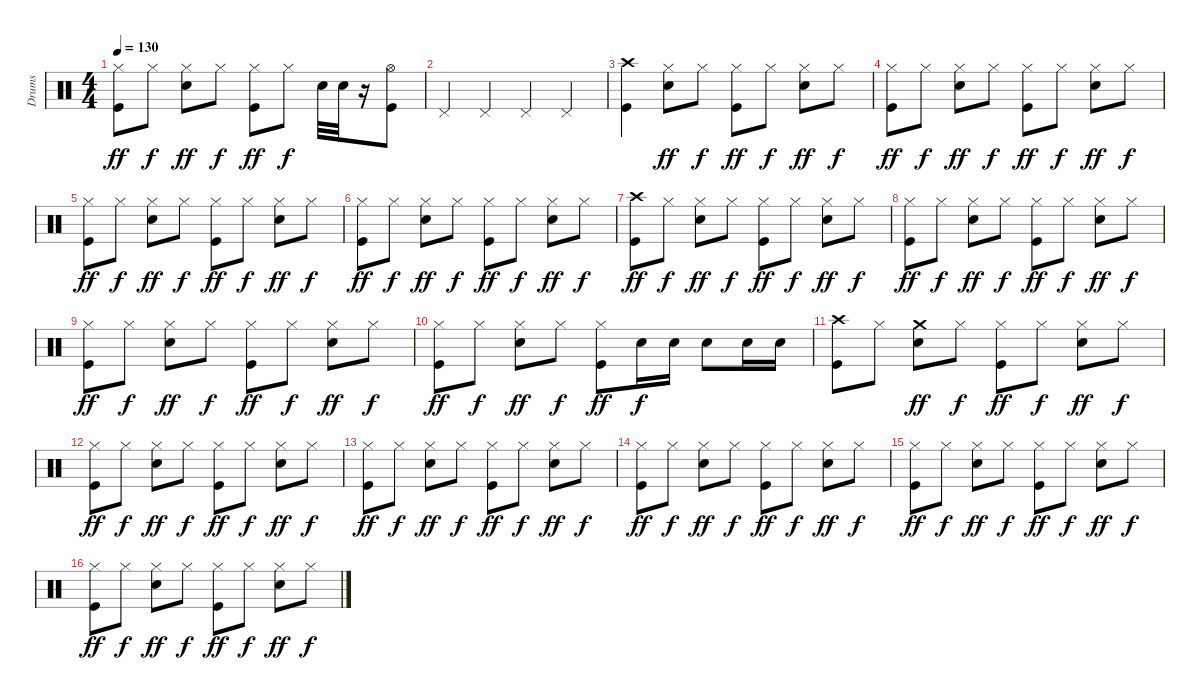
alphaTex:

\track ("Drums" "Drums") {instrument percussion}
\staff {score}
\articulation defaults
\ts (4 4)
\tempo 130
\clef neutral
\ks c
("Hi-Hat (closed)" "Kick (hit)").8{dy ff} "Hi-Hat (closed)".8{dy f} ("Hi-Hat (closed)" "Snare (hit) 2").8{dy ff} "Hi-Hat (closed)".8{dy f} ("Hi-Hat (closed)" "Kick (hit)").8{dy ff} "Hi-Hat (closed)".8{dy f} "Snare (hit) 2".32 "Snare (hit) 2".32 r.16 ("Hi-Hat (open)" "Kick (hit)").8 |
"Pedal Hi-Hat (hit)".4 "Pedal Hi-Hat (hit)".4 "Pedal Hi-Hat (hit)".4 "Pedal Hi-Hat (hit)".4 |
("Crash high (hit)" "Kick (hit)").4 ("Hi-Hat (closed)" "Snare (hit) 2").8{dy ff} "Hi-Hat (closed)".8{dy f} ("Hi-Hat (closed)" "Kick (hit)").8{dy ff} "Hi-Hat (closed)".8{dy f} ("Hi-Hat (closed)" "Snare (hit) 2").8{dy ff} "Hi-Hat (closed)".8{dy f} |
("Hi-Hat (closed)" "Kick (hit)").8{dy ff} "Hi-Hat (closed)".8{dy f} ("Hi-Hat (closed)" "Snare (hit) 2").8{dy ff} "Hi-Hat (closed)".8{dy f} ("Hi-Hat (closed)" "Kick (hit)").8{dy ff} "Hi-Hat (closed)".8{dy f} ("Hi-Hat (closed)" "Snare (hit) 2").8{dy ff} "Hi-Hat (closed)".8{dy f} |
("Hi-Hat (closed)" "Kick (hit)").8{dy ff} "Hi-Hat (closed)".8{dy f} ("Hi-Hat (closed)" "Snare (hit) 2").8{dy ff} "Hi-Hat (closed)".8{dy f} ("Hi-Hat (closed)" "Kick (hit)").8{dy ff} "Hi-Hat (closed)".8{dy f} ("Hi-Hat (closed)" "Snare (hit) 2").8{dy ff} "Hi-Hat (closed)".8{dy f} |
("Hi-Hat (closed)" "Kick (hit)").8{dy ff} "Hi-Hat (closed)".8{dy f} ("Hi-Hat (closed)" "Snare (hit) 2").8{dy ff} "Hi-Hat (closed)".8{dy f} ("Hi-Hat (closed)" "Kick (hit)").8{dy ff} "Hi-Hat (closed)".8{dy f} ("Hi-Hat (closed)" "Snare (hit) 2").8{dy ff} "Hi-Hat (closed)".8{dy f} |
("Crash high (hit)" "Kick (hit)").8{dy ff} "Hi-Hat (closed)".8{dy f} ("Hi-Hat (closed)" "Snare (hit) 2").8{dy ff} "Hi-Hat (closed)".8{dy f} ("Hi-Hat (closed)" "Kick (hit)").8{dy ff} "Hi-Hat (closed)".8{dy f} ("Hi-Hat (closed)" "Snare (hit) 2").8{dy ff} "Hi-Hat (closed)".8{dy f} |
("Hi-Hat (closed)" "Kick (hit)").8{dy ff} "Hi-Hat (closed)".8{dy f} ("Hi-Hat (closed)" "Snare (hit) 2").8{dy ff} "Hi-Hat (closed)".8{dy f} ("Hi-Hat (closed)" "Kick (hit)").8{dy ff} "Hi-Hat (closed)".8{dy f} ("Hi-Hat (closed)" "Snare (hit) 2").8{dy ff} "Hi-Hat (closed)".8{dy f} |
("Hi-Hat (closed)" "Kick (hit)").8{dy ff} "Hi-Hat (closed)".8{dy f} ("Hi-Hat (closed)" "Snare (hit) 2").8{dy ff} "Hi-Hat (closed)".8{dy f} ("Hi-Hat (closed)" "Kick (hit)").8{dy ff} "Hi-Hat (closed)".8{dy f} ("Hi-Hat (closed)" "Snare (hit) 2").8{dy ff} "Hi-Hat (closed)".8{dy f} |
("Hi-Hat (closed)" "Kick (hit)").8{dy ff} "Hi-Hat (closed)".8{dy f} ("Hi-Hat (closed)" "Snare (hit) 2").8{dy ff} "Hi-Hat (closed)".8{dy f} ("Hi-Hat (closed)" "Kick (hit)").8{dy ff} "Snare (hit) 2".16{dy f} "Snare (hit) 2".16 "Snare (hit) 2".8 "Snare (hit) 2".16 "Snare (hit) 2".16 |
("Crash high (hit)" "Kick (hit)").8 "Hi-Hat (closed)".8 ("Crash medium (hit)" "Snare (hit) 2").8{dy ff} "Hi-Hat (closed)".8{dy f} ("Hi-Hat (closed)" "Kick (hit)").8{dy ff} "Hi-Hat (closed)".8{dy f} ("Hi-Hat (closed)" "Snare (hit) 2").8{dy ff} "Hi-Hat (closed)".8{dy f} |
("Hi-Hat (closed)" "Kick (hit)").8{dy ff} "Hi-Hat (closed)".8{dy f} ("Hi-Hat (closed)" "Snare (hit) 2").8{dy ff} "Hi-Hat (closed)".8{dy f} ("Hi-Hat (closed)" "Kick (hit)").8{dy ff} "Hi-Hat (closed)".8{dy f} ("Hi-Hat (closed)" "Snare (hit) 2").8{dy ff} "Hi-Hat (closed)".8{dy f} |
("Hi-Hat (closed)" "Kick (hit)").8{dy ff} "Hi-Hat (closed)".8{dy f} ("Hi-Hat (closed)" "Snare (hit) 2").8{dy ff} "Hi-Hat (closed)".8{dy f} ("Hi-Hat (closed)" "Kick (hit)").8{dy ff} "Hi-Hat (closed)".8{dy f} ("Hi-Hat (closed)" "Snare (hit) 2").8{dy ff} "Hi-Hat (closed)".8{dy f} |
("Hi-Hat (closed)" "Kick (hit)").8{dy ff} "Hi-Hat (closed)".8{dy f} ("Hi-Hat (closed)" "Snare (hit) 2").8{dy ff} "Hi-Hat (closed)".8{dy f} ("Hi-Hat (closed)" "Kick (hit)").8{dy ff} "Hi-Hat (closed)".8{dy f} ("Hi-Hat (closed)" "Snare (hit) 2").8{dy ff} "Hi-Hat (closed)".8{dy f} |
("Hi-Hat (closed)" "Kick (hit)").8{dy ff} "Hi-Hat (closed)".8{dy f} ("Hi-Hat (closed)" "Snare (hit) 2").8{dy ff} "Hi-Hat (closed)".8{dy f} ("Hi-Hat (closed)" "Kick (hit)").8{dy ff} "Hi-Hat (closed)".8{dy f} ("Hi-Hat (closed)" "Snare (hit) 2").8{dy ff} "Hi-Hat (closed)".8{dy f} |
("Hi-Hat (closed)" "Kick (hit)").8{dy ff} "Hi-Hat (closed)".8{dy f} ("Hi-Hat (closed)" "Snare (hit) 2").8{dy ff} "Hi-Hat (closed)".8{dy f} ("Hi-Hat (closed)" "Kick (hit)").8{dy ff} "Hi-Hat (closed)".8{dy f} ("Hi-Hat (closed)" "Snare (hit) 2").8{dy ff} "Hi-Hat (closed)".8{dy f}
